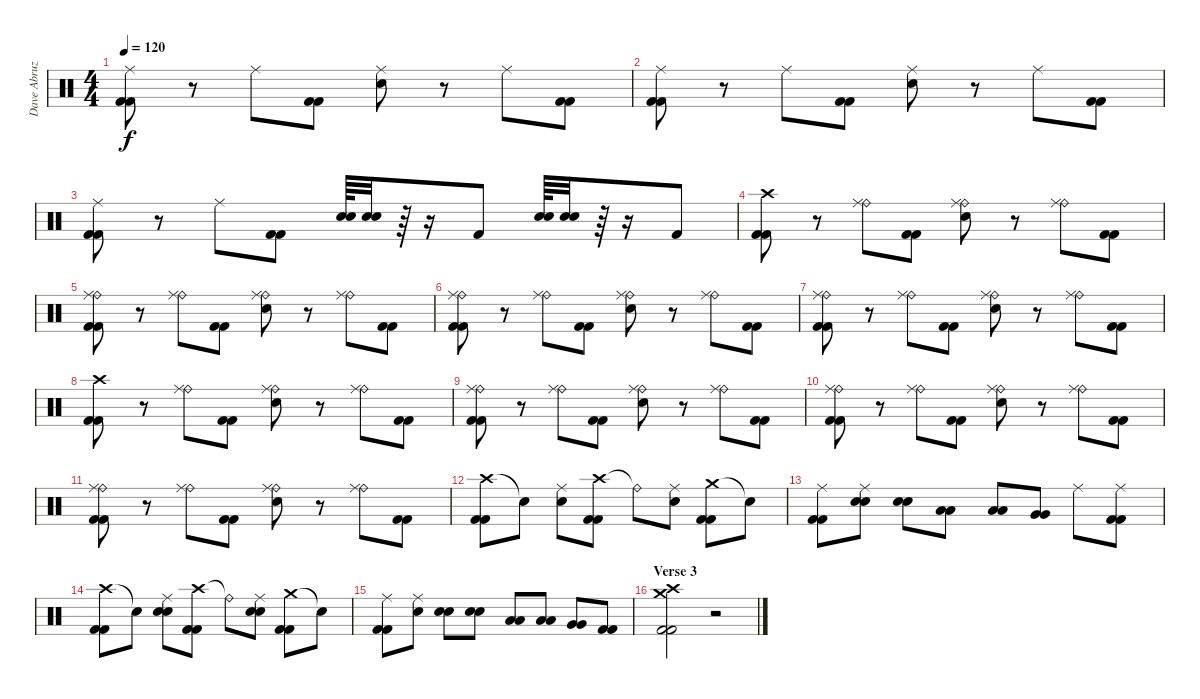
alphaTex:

\track ("Dave Abruzzese" "Dave Abruz") {instrument percussion}
\staff {score}
\articulation defaults
\ts (4 4)
\tempo 120
\clef neutral
\ks c
("Ride (middle)" "Kick (hit) 2" "Kick (hit) 2").8{dy f} r.8 "Ride (middle)".8 ("Kick (hit) 2" "Kick (hit) 2").8 ("Ride (middle)" "Electric Snare (hit)").8 r.8 "Ride (middle)".8 ("Kick (hit) 2" "Kick (hit) 2").8 |
("Ride (middle)" "Kick (hit) 2" "Kick (hit) 2").8 r.8 "Ride (middle)".8 ("Kick (hit) 2" "Kick (hit) 2").8 ("Ride (middle)" "Electric Snare (hit)").8 r.8 "Ride (middle)".8 ("Kick (hit) 2" "Kick (hit) 2").8 |
("Ride (middle)" "Kick (hit) 2" "Kick (hit) 2").8 r.8 "Ride (middle)".8 ("Kick (hit) 2" "Kick (hit) 2").8 ("Electric Snare (hit)" "Electric Snare (hit)").64 ("Electric Snare (hit)" "Electric Snare (hit)").32 r.64 r.16 "Kick (hit) 2".8 ("Electric Snare (hit)" "Electric Snare (hit)").64 ("Electric Snare (hit)" "Electric Snare (hit)").32 r.64 r.16 "Kick (hit) 2".8 |
("Crash high (hit)" "Kick (hit) 2" "Kick (hit) 2").8 r.8 ("Ride (bell)" "Ride (middle)").8 ("Kick (hit) 2" "Kick (hit) 2").8 ("Ride (bell)" "Ride (middle)" "Electric Snare (hit)").8 r.8 ("Ride (bell)" "Ride (middle)").8 ("Kick (hit) 2" "Kick (hit) 2").8 |
("Ride (bell)" "Ride (middle)" "Kick (hit) 2" "Kick (hit) 2").8 r.8 ("Ride (bell)" "Ride (middle)").8 ("Kick (hit) 2" "Kick (hit) 2").8 ("Ride (bell)" "Ride (middle)" "Electric Snare (hit)").8 r.8 ("Ride (bell)" "Ride (middle)").8 ("Kick (hit) 2" "Kick (hit) 2").8 |
("Ride (bell)" "Ride (middle)" "Kick (hit) 2" "Kick (hit) 2").8 r.8 ("Ride (bell)" "Ride (middle)").8 ("Kick (hit) 2" "Kick (hit) 2").8 ("Ride (bell)" "Ride (middle)" "Electric Snare (hit)").8 r.8 ("Ride (bell)" "Ride (middle)").8 ("Kick (hit) 2" "Kick (hit) 2").8 |
("Ride (bell)" "Ride (middle)" "Kick (hit) 2" "Kick (hit) 2").8 r.8 ("Ride (bell)" "Ride (middle)").8 ("Kick (hit) 2" "Kick (hit) 2").8 ("Ride (bell)" "Ride (middle)" "Electric Snare (hit)").8 r.8 ("Ride (bell)" "Ride (middle)").8 ("Kick (hit) 2" "Kick (hit) 2").8 |
("Crash high (hit)" "Kick (hit) 2" "Kick (hit) 2").8 r.8 ("Ride (bell)" "Ride (middle)").8 ("Kick (hit) 2" "Kick (hit) 2").8 ("Ride (bell)" "Ride (middle)" "Electric Snare (hit)").8 r.8 ("Ride (bell)" "Ride (middle)").8 ("Kick (hit) 2" "Kick (hit) 2").8 |
("Ride (bell)" "Ride (middle)" "Kick (hit) 2" "Kick (hit) 2").8 r.8 ("Ride (bell)" "Ride (middle)").8 ("Kick (hit) 2" "Kick (hit) 2").8 ("Ride (bell)" "Ride (middle)" "Electric Snare (hit)").8 r.8 ("Ride (bell)" "Ride (middle)").8 ("Kick (hit) 2" "Kick (hit) 2").8 |
("Ride (bell)" "Ride (middle)" "Kick (hit) 2" "Kick (hit) 2").8 r.8 ("Ride (bell)" "Ride (middle)").8 ("Kick (hit) 2" "Kick (hit) 2").8 ("Ride (bell)" "Ride (middle)" "Electric Snare (hit)").8 r.8 ("Ride (bell)" "Ride (middle)").8 ("Kick (hit) 2" "Kick (hit) 2").8 |
("Ride (bell)" "Ride (middle)" "Kick (hit) 2" "Kick (hit) 2").8 r.8 ("Ride (bell)" "Ride (middle)").8 ("Kick (hit) 2" "Kick (hit) 2").8 ("Ride (bell)" "Ride (middle)" "Electric Snare (hit)").8 r.8 ("Ride (bell)" "Ride (middle)").8 ("Kick (hit) 2" "Kick (hit) 2").8 |
("Crash high (hit)" "Kick (hit) 2" "Kick (hit) 2").8 "Snare (hit)"{t}.8 ("Ride (middle)" "Electric Snare (hit)").8 ("Crash high (hit)" "Kick (hit) 2" "Kick (hit) 2").8 "Ride (bell)"{t}.8 ("Ride (middle)" "Electric Snare (hit)").8 ("Crash medium (hit)" "Kick (hit) 2" "Kick (hit) 2").8 "Snare (hit)"{t}.8 |
("Ride (middle)" "Kick (hit) 2" "Kick (hit) 2").8 ("Ride (middle)" "Electric Snare (hit)" "Electric Snare (hit)").8 ("Electric Snare (hit)" "Electric Snare (hit)").8 ("Low Tom (hit)" "Low Tom (hit)").8 ("Low Tom (hit)" "Low Tom (hit)").8 ("Very Low Tom (hit)" "Very Low Tom (hit)").8 "Ride (middle)".8 ("Ride (middle)" "Kick (hit) 2" "Kick (hit) 2").8 |
("Crash high (hit)" "Kick (hit) 2" "Kick (hit) 2").8 "Snare (hit)"{t}.8 ("Ride (middle)" "Electric Snare (hit)" "Electric Snare (hit)").8 ("Crash high (hit)" "Kick (hit) 2" "Kick (hit) 2").8 "Ride (bell)"{t}.8 ("Ride (middle)" "Electric Snare (hit)" "Electric Snare (hit)").8 ("Crash medium (hit)" "Kick (hit) 2" "Kick (hit) 2").8 "Snare (hit)"{t}.8 |
("Ride (middle)" "Kick (hit) 2" "Kick (hit) 2").8 ("Ride (middle)" "Electric Snare (hit)").8 ("Electric Snare (hit)" "Electric Snare (hit)").8 ("Electric Snare (hit)" "Electric Snare (hit)").8 ("Low Tom (hit)" "Low Tom (hit)").8 ("Low Tom (hit)" "Low Tom (hit)").8 ("Very Low Tom (hit)" "Very Low Tom (hit)").8 ("Kick (hit) 2" "Kick (hit) 2").8 |
\section ("" "Verse 3")
("Crash medium (hit)" "Crash high (hit)" "Kick (hit) 2" "Kick (hit) 2").2 r.2
